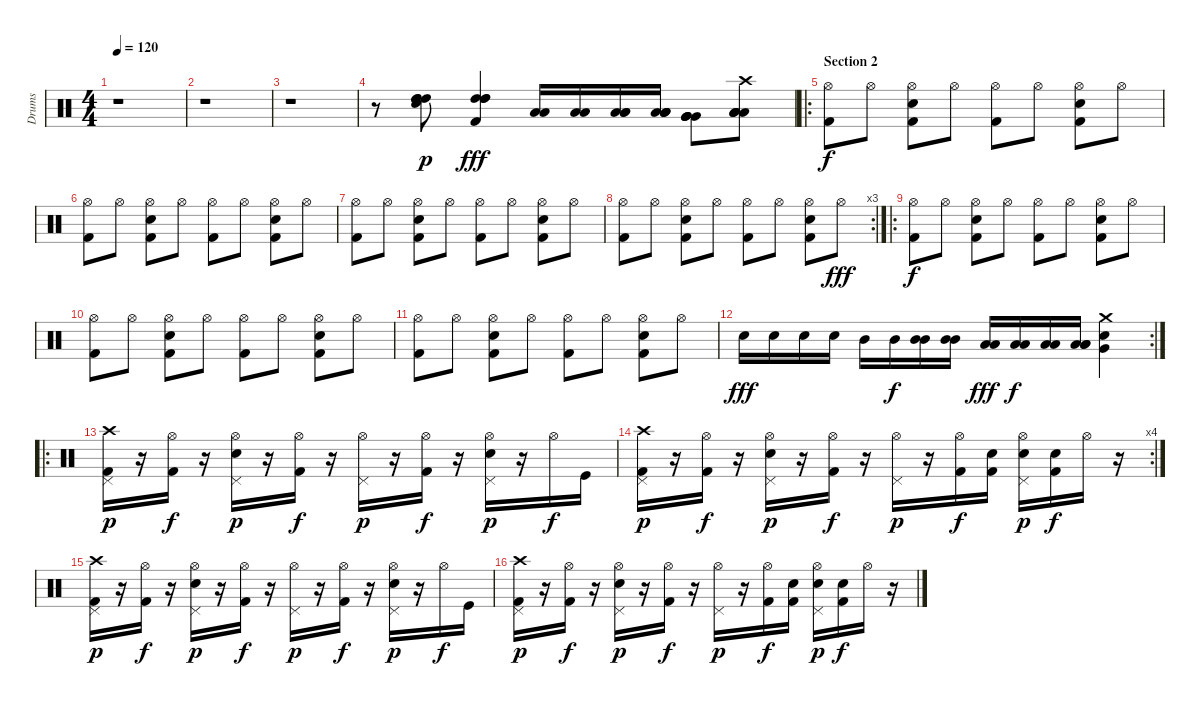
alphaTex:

\track ("Drums" "Drums") {instrument percussion}
\staff {score}
\articulation defaults
\ts (4 4)
\tempo 120
\clef neutral
\ks c
r.1{dy p} |
r.1 |
r.1 |
r.8 ("High Tom (hit)" "Snare (hit) 2" "High Tom (hit)" "High Tom (hit)").8 ("High Tom (hit)" "Kick (hit) 2" "High Tom (hit)" "High Tom (hit)").4{dy fff} ("Low Tom (hit)" "Low Tom (hit)").16 ("Low Tom (hit)" "Low Tom (hit)").16 ("Low Tom (hit)" "Low Tom (hit)" "Low Tom (hit)").16 ("Low Tom (hit)" "Low Tom (hit)" "Low Tom (hit)" "Low Tom (hit)").16 ("Very Low Tom (hit)" "Very Low Tom (hit)" "Very Low Tom (hit)" "Very Low Tom (hit)").8 ("Low Floor Tom (hit)" "Low Floor Tom (hit)" "Low Floor Tom (hit)" "Low Floor Tom (hit)" "Crash high (hit)").8 |
\ro
\section ("" "Section 2")
("Hi-Hat (open)" "Kick (hit) 2").8{dy f} "Hi-Hat (open)".8 ("Hi-Hat (open)" "Electric Snare (hit)" "Kick (hit) 2").8 "Hi-Hat (open)".8 ("Hi-Hat (open)" "Kick (hit) 2").8 "Hi-Hat (open)".8 ("Hi-Hat (open)" "Electric Snare (hit)" "Kick (hit) 2").8 "Hi-Hat (open)".8 |
("Hi-Hat (open)" "Kick (hit) 2").8 "Hi-Hat (open)".8 ("Hi-Hat (open)" "Electric Snare (hit)" "Kick (hit) 2").8 "Hi-Hat (open)".8 ("Hi-Hat (open)" "Kick (hit) 2").8 "Hi-Hat (open)".8 ("Hi-Hat (open)" "Electric Snare (hit)" "Kick (hit) 2").8 "Hi-Hat (open)".8 |
("Hi-Hat (open)" "Kick (hit) 2").8 "Hi-Hat (open)".8 ("Hi-Hat (open)" "Electric Snare (hit)" "Kick (hit) 2").8 "Hi-Hat (open)".8 ("Hi-Hat (open)" "Kick (hit) 2").8 "Hi-Hat (open)".8 ("Hi-Hat (open)" "Electric Snare (hit)" "Kick (hit) 2").8 "Hi-Hat (open)".8 |
\rc 3
("Hi-Hat (open)" "Kick (hit) 2").8 "Hi-Hat (open)".8 ("Hi-Hat (open)" "Electric Snare (hit)" "Kick (hit) 2").8 "Hi-Hat (open)".8 ("Hi-Hat (open)" "Kick (hit) 2").8 "Hi-Hat (open)".8 ("Hi-Hat (open)" "Electric Snare (hit)" "Kick (hit) 2").8 "Hi-Hat (open)".8{dy fff} |
\ro
("Hi-Hat (open)" "Kick (hit) 2").8{dy f} "Hi-Hat (open)".8 ("Hi-Hat (open)" "Electric Snare (hit)" "Kick (hit) 2").8 "Hi-Hat (open)".8 ("Hi-Hat (open)" "Kick (hit) 2").8 "Hi-Hat (open)".8 ("Hi-Hat (open)" "Electric Snare (hit)" "Kick (hit) 2").8 "Hi-Hat (open)".8 |
("Hi-Hat (open)" "Kick (hit) 2").8 "Hi-Hat (open)".8 ("Hi-Hat (open)" "Electric Snare (hit)" "Kick (hit) 2").8 "Hi-Hat (open)".8 ("Hi-Hat (open)" "Kick (hit) 2").8 "Hi-Hat (open)".8 ("Hi-Hat (open)" "Electric Snare (hit)" "Kick (hit) 2").8 "Hi-Hat (open)".8 |
("Hi-Hat (open)" "Kick (hit) 2").8 "Hi-Hat (open)".8 ("Hi-Hat (open)" "Electric Snare (hit)" "Kick (hit) 2").8 "Hi-Hat (open)".8 ("Hi-Hat (open)" "Kick (hit) 2").8 "Hi-Hat (open)".8 ("Hi-Hat (open)" "Electric Snare (hit)" "Kick (hit) 2").8 "Hi-Hat (open)".8 |
\rc 2 "Snare (hit) 2".16{dy fff} "Snare (hit) 2".16 "Snare (hit) 2".16 "Snare (hit) 2".16 "Mid Tom (hit)".16 "Mid Tom (hit)".16{dy f}
("Mid Tom (hit)" "Mid Tom (hit)").16 ("Mid Tom (hit)" "Mid Tom (hit)").16 ("Low Tom (hit)" "Low Tom (hit)").16{dy fff} ("Low Tom (hit)" "Low Tom (hit)").16{dy f} ("Low Tom (hit)" "Low Tom (hit)").16 ("Low Tom (hit)" "Low Tom (hit)" "Low Tom (hit)").16 ("Very Low Tom (hit)" "Snare (hit) 2" "Crash medium (hit)").4 |
\ro
("Crash high (hit)" "Kick (hit) 2" "Pedal Hi-Hat (hit)").16{dy p volume 16} r.16 ("Kick (hit) 2" "Hi-Hat (open)").16{dy f} r.16 ("Snare (hit) 2" "Hi-Hat (open)" "Pedal Hi-Hat (hit)").16{dy p} r.16 ("Kick (hit) 2" "Hi-Hat (open)").16{dy f} r.16 ("Hi-Hat (open)" "Pedal Hi-Hat (hit)").16{dy p} r.16 ("Kick (hit) 2" "Hi-Hat (open)").16{dy f} r.16 ("Snare (hit) 2" "Hi-Hat (open)" "Pedal Hi-Hat (hit)").16{dy p} r.16 "Hi-Hat (open)".16{dy f} "Kick (hit)".16 |
\rc 4
("Crash high (hit)" "Kick (hit) 2" "Pedal Hi-Hat (hit)").16{dy p} r.16 ("Kick (hit) 2" "Hi-Hat (open)").16{dy f} r.16 ("Snare (hit) 2" "Hi-Hat (open)" "Pedal Hi-Hat (hit)").16{dy p} r.16 ("Kick (hit) 2" "Hi-Hat (open)").16{dy f} r.16 ("Hi-Hat (open)" "Pedal Hi-Hat (hit)").16{dy p} r.16 ("Kick (hit) 2" "Hi-Hat (open)").16{dy f} ("Snare (hit)" "Kick (hit) 2").16 ("Snare (hit) 2" "Hi-Hat (open)" "Pedal Hi-Hat (hit)").16{dy p} ("Snare (hit)" "Kick (hit) 2").16{dy f} "Hi-Hat (open)".16 r.16 |
("Crash high (hit)" "Kick (hit) 2" "Pedal Hi-Hat (hit)").16{dy p volume 16} r.16 ("Kick (hit) 2" "Hi-Hat (open)").16{dy f} r.16 ("Snare (hit) 2" "Hi-Hat (open)" "Pedal Hi-Hat (hit)").16{dy p} r.16 ("Kick (hit) 2" "Hi-Hat (open)").16{dy f} r.16 ("Hi-Hat (open)" "Pedal Hi-Hat (hit)").16{dy p} r.16 ("Kick (hit) 2" "Hi-Hat (open)").16{dy f} r.16 ("Snare (hit) 2" "Hi-Hat (open)" "Pedal Hi-Hat (hit)").16{dy p} r.16 "Hi-Hat (open)".16{dy f} "Kick (hit)".16 |
("Crash high (hit)" "Kick (hit) 2" "Pedal Hi-Hat (hit)").16{dy p} r.16 ("Kick (hit) 2" "Hi-Hat (open)").16{dy f} r.16 ("Snare (hit) 2" "Hi-Hat (open)" "Pedal Hi-Hat (hit)").16{dy p} r.16 ("Kick (hit) 2" "Hi-Hat (open)").16{dy f} r.16 ("Hi-Hat (open)" "Pedal Hi-Hat (hit)").16{dy p} r.16 ("Kick (hit) 2" "Hi-Hat (open)").16{dy f} ("Snare (hit)" "Kick (hit) 2").16 ("Snare (hit) 2" "Hi-Hat (open)" "Pedal Hi-Hat (hit)").16{dy p} ("Snare (hit)" "Kick (hit) 2").16{dy f} "Hi-Hat (open)".16 r.16
